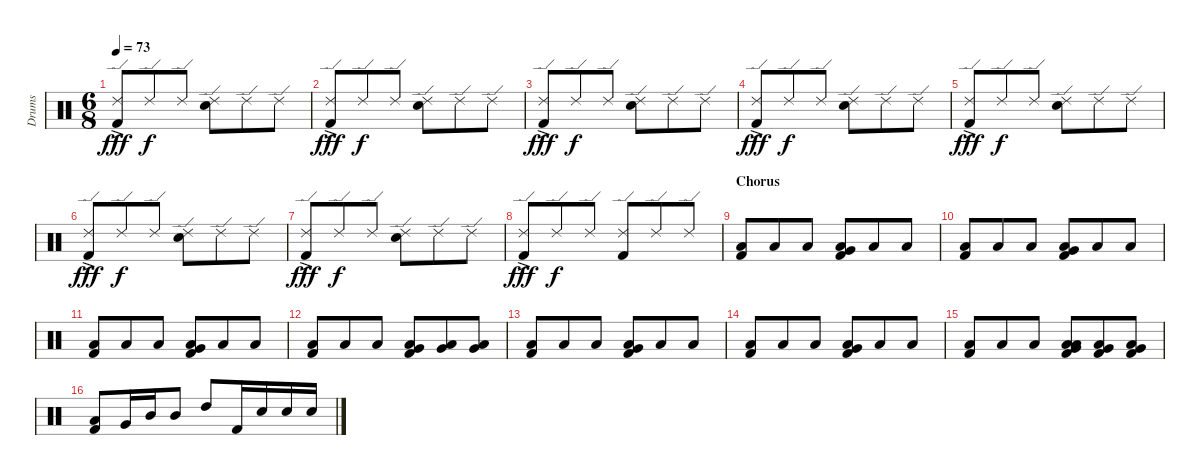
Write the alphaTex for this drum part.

\track ("Drums" "Drums") {instrument percussion}
\staff {score}
\articulation defaults
\ts (6 8)
\tempo 73
\clef neutral
\ks c
("Ride (edge) 2" "Kick (hit) 2"{ac}).8{dy fff} "Ride (edge) 2".8{dy f} "Ride (edge) 2".8 ("Ride (edge) 2" "Electric Snare (hit)").8 "Ride (edge) 2".8 "Ride (edge) 2".8 |
("Ride (edge) 2" "Kick (hit) 2"{ac}).8{dy fff} "Ride (edge) 2".8{dy f} "Ride (edge) 2".8 ("Ride (edge) 2" "Electric Snare (hit)").8 "Ride (edge) 2".8 "Ride (edge) 2".8 |
("Ride (edge) 2" "Kick (hit) 2"{ac}).8{dy fff} "Ride (edge) 2".8{dy f} "Ride (edge) 2".8 ("Ride (edge) 2" "Electric Snare (hit)").8 "Ride (edge) 2".8 "Ride (edge) 2".8 |
("Ride (edge) 2" "Kick (hit) 2"{ac}).8{dy fff} "Ride (edge) 2".8{dy f} "Ride (edge) 2".8 ("Ride (edge) 2" "Electric Snare (hit)").8 "Ride (edge) 2".8 "Ride (edge) 2".8 |
("Ride (edge) 2" "Kick (hit) 2"{ac}).8{dy fff} "Ride (edge) 2".8{dy f} "Ride (edge) 2".8 ("Ride (edge) 2" "Electric Snare (hit)").8 "Ride (edge) 2".8 "Ride (edge) 2".8 |
("Ride (edge) 2" "Kick (hit) 2"{ac}).8{dy fff} "Ride (edge) 2".8{dy f} "Ride (edge) 2".8 ("Ride (edge) 2" "Electric Snare (hit)").8 "Ride (edge) 2".8 "Ride (edge) 2".8 |
("Ride (edge) 2" "Kick (hit) 2"{ac}).8{dy fff} "Ride (edge) 2".8{dy f} "Ride (edge) 2".8 ("Ride (edge) 2" "Electric Snare (hit)").8 "Ride (edge) 2".8 "Ride (edge) 2".8 |
("Ride (edge) 2" "Kick (hit) 2"{ac}).8{dy fff} "Ride (edge) 2".8{dy f} "Ride (edge) 2".8 ("Ride (edge) 2" "Kick (hit) 2").8 "Ride (edge) 2".8 "Ride (edge) 2".8 |
\section ("" "Chorus")
("Low Floor Tom (hit)" "Kick (hit) 2").8 "Low Floor Tom (hit)".8 "Low Floor Tom (hit)".8 ("Low Tom (hit)" "Very Low Tom (hit)" "Kick (hit) 2").8 "Low Floor Tom (hit)".8 "Low Floor Tom (hit)".8 |
("Low Floor Tom (hit)" "Kick (hit) 2").8 "Low Floor Tom (hit)".8 "Low Floor Tom (hit)".8 ("Low Tom (hit)" "Very Low Tom (hit)" "Kick (hit) 2").8 "Low Floor Tom (hit)".8 "Low Floor Tom (hit)".8 |
("Low Floor Tom (hit)" "Kick (hit) 2").8 "Low Floor Tom (hit)".8 "Low Floor Tom (hit)".8 ("Low Tom (hit)" "Very Low Tom (hit)" "Kick (hit) 2").8 "Low Floor Tom (hit)".8 "Low Floor Tom (hit)".8 |
("Low Floor Tom (hit)" "Kick (hit) 2").8 "Low Floor Tom (hit)".8 "Low Floor Tom (hit)".8 ("Low Tom (hit)" "Very Low Tom (hit)" "Kick (hit) 2").8 ("Very Low Tom (hit)" "Low Floor Tom (hit)").8 ("Very Low Tom (hit)" "Low Floor Tom (hit)").8 |
("Low Floor Tom (hit)" "Kick (hit) 2").8 "Low Floor Tom (hit)".8 "Low Floor Tom (hit)".8 ("Low Tom (hit)" "Very Low Tom (hit)" "Kick (hit) 2").8 "Low Floor Tom (hit)".8 "Low Floor Tom (hit)".8 |
("Low Floor Tom (hit)" "Kick (hit) 2").8 "Low Floor Tom (hit)".8 "Low Floor Tom (hit)".8 ("Low Tom (hit)" "Very Low Tom (hit)" "Kick (hit) 2").8 "Low Floor Tom (hit)".8 "Low Floor Tom (hit)".8 |
("Low Floor Tom (hit)" "Kick (hit) 2").8 "Low Floor Tom (hit)".8 "Low Floor Tom (hit)".8 ("Low Tom (hit)" "Very Low Tom (hit)" "Low Floor Tom (hit)" "Kick (hit) 2").8 ("Very Low Tom (hit)" "Low Floor Tom (hit)" "Kick (hit) 2").8 ("Very Low Tom (hit)" "Low Floor Tom (hit)" "Kick (hit) 2").8 |
("Low Floor Tom (hit)" "Kick (hit) 2").8 "Very Low Tom (hit)".16 "Mid Tom (hit)".16 "Mid Tom (hit)".8 "High Tom (hit)".8 "Kick (hit) 2".16 "Electric Snare (hit)".16 "Electric Snare (hit)".16 "Electric Snare (hit)".16
